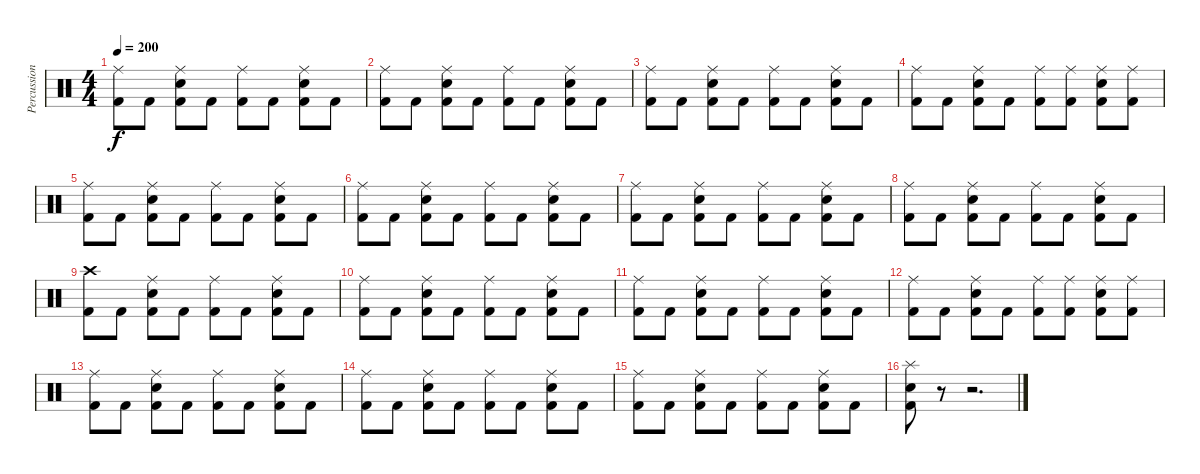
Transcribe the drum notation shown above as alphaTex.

\track ("Percussion" "Percussion") {instrument percussion}
\staff {score}
\articulation defaults
\ts (4 4)
\tempo 200
\clef neutral
\ks c
("Ride (middle)" "Kick (hit) 2").8{dy f} "Kick (hit) 2".8 ("Ride (middle)" "Snare (hit) 2" "Kick (hit) 2").8 "Kick (hit) 2".8 ("Ride (middle)" "Kick (hit) 2").8 "Kick (hit) 2".8 ("Ride (middle)" "Snare (hit) 2" "Kick (hit) 2").8 "Kick (hit) 2".8 |
("Ride (middle)" "Kick (hit) 2").8 "Kick (hit) 2".8 ("Ride (middle)" "Snare (hit) 2" "Kick (hit) 2").8 "Kick (hit) 2".8 ("Ride (middle)" "Kick (hit) 2").8 "Kick (hit) 2".8 ("Ride (middle)" "Snare (hit) 2" "Kick (hit) 2").8 "Kick (hit) 2".8 |
("Ride (middle)" "Kick (hit) 2").8 "Kick (hit) 2".8 ("Ride (middle)" "Snare (hit) 2" "Kick (hit) 2").8 "Kick (hit) 2".8 ("Ride (middle)" "Kick (hit) 2").8 "Kick (hit) 2".8 ("Ride (middle)" "Snare (hit) 2" "Kick (hit) 2").8 "Kick (hit) 2".8 |
("Ride (middle)" "Kick (hit) 2").8 "Kick (hit) 2".8 ("Ride (middle)" "Snare (hit) 2" "Kick (hit) 2").8 "Kick (hit) 2".8 ("Ride (middle)" "Kick (hit) 2").8 ("Ride (middle)" "Kick (hit) 2").8 ("Ride (middle)" "Snare (hit) 2" "Kick (hit) 2").8 ("Ride (middle)" "Kick (hit) 2").8 |
("Ride (middle)" "Kick (hit) 2").8 "Kick (hit) 2".8 ("Ride (middle)" "Snare (hit) 2" "Kick (hit) 2").8 "Kick (hit) 2".8 ("Ride (middle)" "Kick (hit) 2").8 "Kick (hit) 2".8 ("Ride (middle)" "Snare (hit) 2" "Kick (hit) 2").8 "Kick (hit) 2".8 |
("Ride (middle)" "Kick (hit) 2").8 "Kick (hit) 2".8 ("Ride (middle)" "Snare (hit) 2" "Kick (hit) 2").8 "Kick (hit) 2".8 ("Ride (middle)" "Kick (hit) 2").8 "Kick (hit) 2".8 ("Ride (middle)" "Snare (hit) 2" "Kick (hit) 2").8 "Kick (hit) 2".8 |
("Ride (middle)" "Kick (hit) 2").8 "Kick (hit) 2".8 ("Ride (middle)" "Snare (hit) 2" "Kick (hit) 2").8 "Kick (hit) 2".8 ("Ride (middle)" "Kick (hit) 2").8 "Kick (hit) 2".8 ("Ride (middle)" "Snare (hit) 2" "Kick (hit) 2").8 "Kick (hit) 2".8 |
("Ride (middle)" "Kick (hit) 2").8 "Kick (hit) 2".8 ("Ride (middle)" "Snare (hit) 2" "Kick (hit) 2").8 "Kick (hit) 2".8 ("Ride (middle)" "Kick (hit) 2").8 "Kick (hit) 2".8 ("Ride (middle)" "Snare (hit) 2" "Kick (hit) 2").8 "Kick (hit) 2".8 |
("Crash high (hit)" "Kick (hit) 2").8 "Kick (hit) 2".8 ("Ride (middle)" "Snare (hit) 2" "Kick (hit) 2").8 "Kick (hit) 2".8 ("Ride (middle)" "Kick (hit) 2").8 "Kick (hit) 2".8 ("Ride (middle)" "Snare (hit) 2" "Kick (hit) 2").8 "Kick (hit) 2".8 |
("Ride (middle)" "Kick (hit) 2").8 "Kick (hit) 2".8 ("Ride (middle)" "Snare (hit) 2" "Kick (hit) 2").8 "Kick (hit) 2".8 ("Ride (middle)" "Kick (hit) 2").8 "Kick (hit) 2".8 ("Ride (middle)" "Snare (hit) 2" "Kick (hit) 2").8 "Kick (hit) 2".8 |
("Ride (middle)" "Kick (hit) 2").8 "Kick (hit) 2".8 ("Ride (middle)" "Snare (hit) 2" "Kick (hit) 2").8 "Kick (hit) 2".8 ("Ride (middle)" "Kick (hit) 2").8 "Kick (hit) 2".8 ("Ride (middle)" "Snare (hit) 2" "Kick (hit) 2").8 "Kick (hit) 2".8 |
("Ride (middle)" "Kick (hit) 2").8 "Kick (hit) 2".8 ("Ride (middle)" "Snare (hit) 2" "Kick (hit) 2").8 "Kick (hit) 2".8 ("Ride (middle)" "Kick (hit) 2").8 ("Ride (middle)" "Kick (hit) 2").8 ("Ride (middle)" "Snare (hit) 2" "Kick (hit) 2").8 ("Ride (middle)" "Kick (hit) 2").8 |
("Ride (middle)" "Kick (hit) 2").8 "Kick (hit) 2".8 ("Ride (middle)" "Snare (hit) 2" "Kick (hit) 2").8 "Kick (hit) 2".8 ("Ride (middle)" "Kick (hit) 2").8 "Kick (hit) 2".8 ("Ride (middle)" "Snare (hit) 2" "Kick (hit) 2").8 "Kick (hit) 2".8 |
("Ride (middle)" "Kick (hit) 2").8 "Kick (hit) 2".8 ("Ride (middle)" "Snare (hit) 2" "Kick (hit) 2").8 "Kick (hit) 2".8 ("Ride (middle)" "Kick (hit) 2").8 "Kick (hit) 2".8 ("Ride (middle)" "Snare (hit) 2" "Kick (hit) 2").8 "Kick (hit) 2".8 |
("Ride (middle)" "Kick (hit) 2").8 "Kick (hit) 2".8 ("Ride (middle)" "Snare (hit) 2" "Kick (hit) 2").8 "Kick (hit) 2".8 ("Ride (middle)" "Kick (hit) 2").8 "Kick (hit) 2".8 ("Ride (middle)" "Snare (hit) 2" "Kick (hit) 2").8 "Kick (hit) 2".8 |
("Snare (hit) 2" "Splash (hit)" "Kick (hit) 2").8 r.8 r.2{d}
